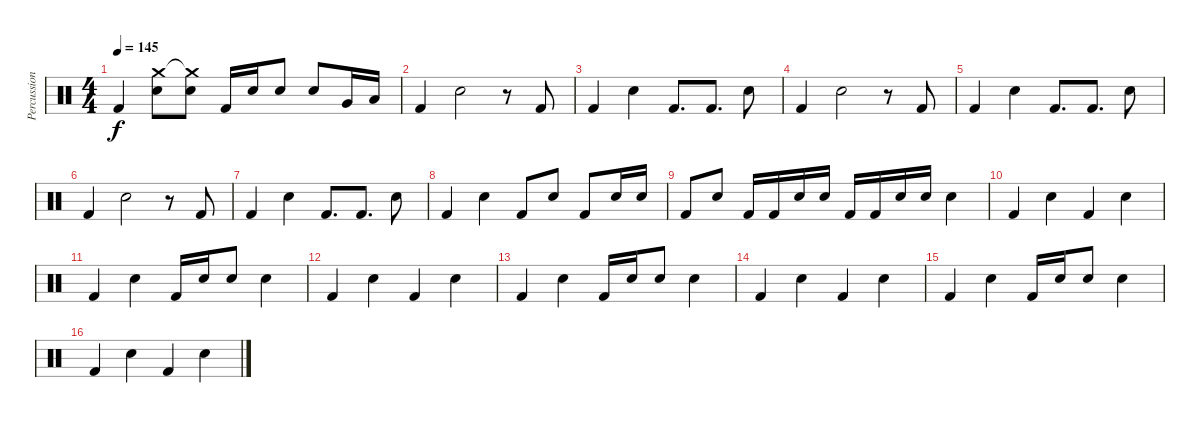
\track ("Percussion" "Percussion") {instrument percussion}
\staff {score}
\articulation defaults
\ts (4 4)
\tempo 145
\clef neutral
\ks c "Kick (hit) 2".4{dy f}
("Crash medium (hit)" "Electric Snare (hit)").8 ("Crash medium (hit)"{t} "Electric Snare (hit)").8 "Kick (hit) 2".16 "Electric Snare (hit)".16 "Electric Snare (hit)".8 "Electric Snare (hit)".8 "Very Low Tom (hit)".16 "Low Floor Tom (hit)".16 |
"Kick (hit) 2".4 "Electric Snare (hit)".2 r.8 "Kick (hit) 2".8 |
"Kick (hit) 2".4 "Electric Snare (hit)".4 "Kick (hit) 2".8{d} "Kick (hit) 2".8{d} "Electric Snare (hit)".8 |
"Kick (hit) 2".4 "Electric Snare (hit)".2 r.8 "Kick (hit) 2".8 |
"Kick (hit) 2".4 "Electric Snare (hit)".4 "Kick (hit) 2".8{d} "Kick (hit) 2".8{d} "Electric Snare (hit)".8 |
"Kick (hit) 2".4 "Electric Snare (hit)".2 r.8 "Kick (hit) 2".8 |
"Kick (hit) 2".4 "Electric Snare (hit)".4 "Kick (hit) 2".8{d} "Kick (hit) 2".8{d} "Electric Snare (hit)".8 |
"Kick (hit) 2".4 "Electric Snare (hit)".4 "Kick (hit) 2".8 "Electric Snare (hit)".8 "Kick (hit) 2".8 "Electric Snare (hit)".16 "Electric Snare (hit)".16 |
"Kick (hit) 2".8 "Electric Snare (hit)".8 "Kick (hit) 2".16 "Kick (hit) 2".16 "Electric Snare (hit)".16 "Electric Snare (hit)".16 "Kick (hit) 2".16 "Kick (hit) 2".16 "Electric Snare (hit)".16 "Electric Snare (hit)".16 "Electric Snare (hit)".4 |
"Kick (hit) 2".4 "Electric Snare (hit)".4 "Kick (hit) 2".4 "Electric Snare (hit)".4 |
"Kick (hit) 2".4 "Electric Snare (hit)".4 "Kick (hit) 2".16 "Electric Snare (hit)".16 "Electric Snare (hit)".8 "Electric Snare (hit)".4 |
"Kick (hit) 2".4 "Electric Snare (hit)".4 "Kick (hit) 2".4 "Electric Snare (hit)".4 |
"Kick (hit) 2".4 "Electric Snare (hit)".4 "Kick (hit) 2".16 "Electric Snare (hit)".16 "Electric Snare (hit)".8 "Electric Snare (hit)".4 |
"Kick (hit) 2".4 "Electric Snare (hit)".4 "Kick (hit) 2".4 "Electric Snare (hit)".4 |
"Kick (hit) 2".4 "Electric Snare (hit)".4 "Kick (hit) 2".16 "Electric Snare (hit)".16 "Electric Snare (hit)".8 "Electric Snare (hit)".4 |
"Kick (hit) 2".4 "Electric Snare (hit)".4 "Kick (hit) 2".4 "Electric Snare (hit)".4
